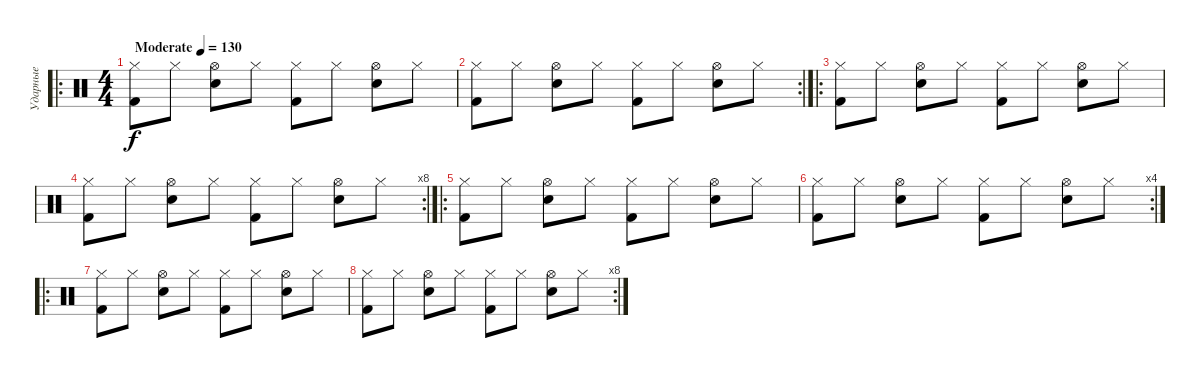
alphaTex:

\track ("Ударные" "Ударные") {instrument percussion}
\staff {score}
\articulation defaults
\ro
\ts (4 4)
\tempo (130 "Moderate")
\clef neutral
\ks c
("Hi-Hat (closed)" "Kick (hit) 2").8{dy f} "Hi-Hat (closed)".8 ("Hi-Hat (open)" "Electric Snare (hit)").8 "Hi-Hat (closed)".8 ("Hi-Hat (closed)" "Kick (hit) 2").8 "Hi-Hat (closed)".8 ("Hi-Hat (open)" "Electric Snare (hit)").8 "Hi-Hat (closed)".8 |
\rc 2
("Hi-Hat (closed)" "Kick (hit) 2").8 "Hi-Hat (closed)".8 ("Hi-Hat (open)" "Electric Snare (hit)").8 "Hi-Hat (closed)".8 ("Hi-Hat (closed)" "Kick (hit) 2").8 "Hi-Hat (closed)".8 ("Hi-Hat (open)" "Electric Snare (hit)").8 "Hi-Hat (closed)".8 |
\ro
("Hi-Hat (closed)" "Kick (hit) 2").8 "Hi-Hat (closed)".8 ("Hi-Hat (open)" "Electric Snare (hit)").8 "Hi-Hat (closed)".8 ("Hi-Hat (closed)" "Kick (hit) 2").8 "Hi-Hat (closed)".8 ("Hi-Hat (open)" "Electric Snare (hit)").8 "Hi-Hat (closed)".8 |
\rc 8
("Hi-Hat (closed)" "Kick (hit) 2").8 "Hi-Hat (closed)".8 ("Hi-Hat (open)" "Electric Snare (hit)").8 "Hi-Hat (closed)".8 ("Hi-Hat (closed)" "Kick (hit) 2").8 "Hi-Hat (closed)".8 ("Hi-Hat (open)" "Electric Snare (hit)").8 "Hi-Hat (closed)".8 |
\ro
("Hi-Hat (closed)" "Kick (hit) 2").8 "Hi-Hat (closed)".8 ("Hi-Hat (open)" "Electric Snare (hit)").8 "Hi-Hat (closed)".8 ("Hi-Hat (closed)" "Kick (hit) 2").8 "Hi-Hat (closed)".8 ("Hi-Hat (open)" "Electric Snare (hit)").8 "Hi-Hat (closed)".8 |
\rc 4
("Hi-Hat (closed)" "Kick (hit) 2").8 "Hi-Hat (closed)".8 ("Hi-Hat (open)" "Electric Snare (hit)").8 "Hi-Hat (closed)".8 ("Hi-Hat (closed)" "Kick (hit) 2").8 "Hi-Hat (closed)".8 ("Hi-Hat (open)" "Electric Snare (hit)").8 "Hi-Hat (closed)".8 |
\ro
("Hi-Hat (closed)" "Kick (hit) 2").8 "Hi-Hat (closed)".8 ("Hi-Hat (open)" "Electric Snare (hit)").8 "Hi-Hat (closed)".8 ("Hi-Hat (closed)" "Kick (hit) 2").8 "Hi-Hat (closed)".8 ("Hi-Hat (open)" "Electric Snare (hit)").8 "Hi-Hat (closed)".8 |
\rc 8
("Hi-Hat (closed)" "Kick (hit) 2").8 "Hi-Hat (closed)".8 ("Hi-Hat (open)" "Electric Snare (hit)").8 "Hi-Hat (closed)".8 ("Hi-Hat (closed)" "Kick (hit) 2").8 "Hi-Hat (closed)".8 ("Hi-Hat (open)" "Electric Snare (hit)").8 "Hi-Hat (closed)".8
